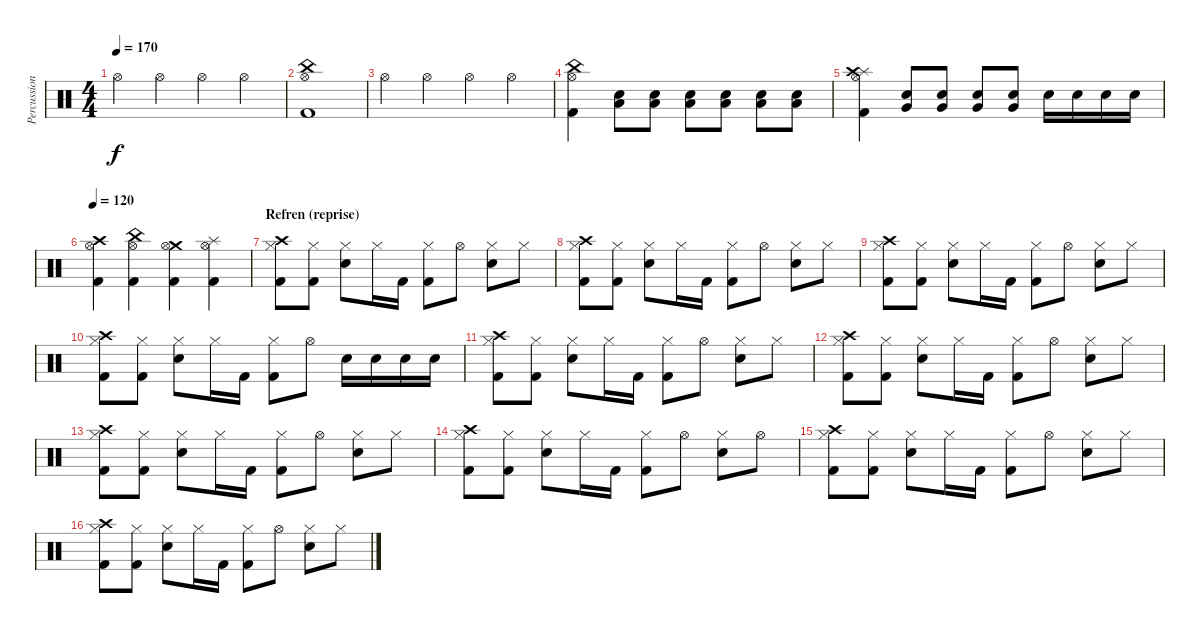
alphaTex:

\track ("Percussion - Who the fuck knows" "Percussion") {instrument percussion}
\staff {score}
\articulation defaults
\ts (4 4)
\tempo 170
\clef neutral
\ks c "Hi-Hat (open)".4{dy f} "Hi-Hat (open)".4 "Hi-Hat (open)".4 "Hi-Hat (open)".4
|
("China (hit)" "Hi-Hat (open)" "Kick (hit) 2").1 |
"Hi-Hat (open)".4 "Hi-Hat (open)".4 "Hi-Hat (open)".4 "Hi-Hat (open)".4 |
("China (hit)" "Hi-Hat (open)" "Kick (hit) 2").4 ("Low Floor Tom (hit)" "Snare (hit) 2").8 ("Low Floor Tom (hit)" "Snare (hit) 2").8 ("Low Floor Tom (hit)" "Snare (hit) 2").8 ("Low Floor Tom (hit)" "Snare (hit) 2").8 ("Low Floor Tom (hit)" "Snare (hit) 2").8 ("Low Floor Tom (hit)" "Snare (hit) 2").8 |
("Hi-Hat (open)" "Splash (hit)" "Kick (hit) 2" "Crash high (hit)").4 ("Very Low Tom (hit)" "Snare (hit) 2").8 ("Very Low Tom (hit)" "Snare (hit) 2").8 ("Very Low Tom (hit)" "Snare (hit) 2").8 ("Very Low Tom (hit)" "Snare (hit) 2").8 "Snare (hit) 2".16 "Snare (hit) 2".16 "Snare (hit) 2".16 "Snare (hit) 2".16 |
\tempo 120
("Crash high (hit)" "Kick (hit) 2" "Hi-Hat (open)").4 ("China (hit)" "Kick (hit) 2" "Hi-Hat (open)").4 ("Crash medium (hit)" "Kick (hit) 2" "Hi-Hat (open)").4 ("Splash (hit)" "Kick (hit) 2" "Hi-Hat (open)").4 |
\section ("" "Refren (reprise)")
("Hi-Hat (closed)" "Kick (hit) 2" "Crash high (hit)").8 ("Hi-Hat (closed)" "Kick (hit) 2").8 ("Hi-Hat (closed)" "Snare (hit) 2").8 "Hi-Hat (closed)".16 "Kick (hit) 2".16 ("Hi-Hat (closed)" "Kick (hit) 2").8 "Hi-Hat (open)".8 ("Hi-Hat (closed)" "Snare (hit) 2").8 "Hi-Hat (closed)".8 |
("Hi-Hat (closed)" "Kick (hit) 2" "Crash high (hit)").8 ("Hi-Hat (closed)" "Kick (hit) 2").8 ("Hi-Hat (closed)" "Snare (hit) 2").8 "Hi-Hat (closed)".16 "Kick (hit) 2".16 ("Hi-Hat (closed)" "Kick (hit) 2").8 "Hi-Hat (open)".8 ("Hi-Hat (closed)" "Snare (hit) 2").8 "Hi-Hat (closed)".8 |
("Hi-Hat (closed)" "Kick (hit) 2" "Crash high (hit)").8 ("Hi-Hat (closed)" "Kick (hit) 2").8 ("Hi-Hat (closed)" "Snare (hit) 2").8 "Hi-Hat (closed)".16 "Kick (hit) 2".16 ("Hi-Hat (closed)" "Kick (hit) 2").8 "Hi-Hat (open)".8 ("Hi-Hat (closed)" "Snare (hit) 2").8 "Hi-Hat (closed)".8 |
("Hi-Hat (closed)" "Kick (hit) 2" "Crash high (hit)").8 ("Hi-Hat (closed)" "Kick (hit) 2").8 ("Hi-Hat (closed)" "Snare (hit) 2").8 "Hi-Hat (closed)".16 "Kick (hit) 2".16 ("Hi-Hat (closed)" "Kick (hit) 2").8 "Hi-Hat (open)".8 "Snare (hit) 2".16 "Snare (hit) 2".16 "Snare (hit) 2".16 "Snare (hit) 2".16 |
("Hi-Hat (closed)" "Kick (hit) 2" "Crash high (hit)").8 ("Hi-Hat (closed)" "Kick (hit) 2").8 ("Hi-Hat (closed)" "Snare (hit) 2").8 "Hi-Hat (closed)".16 "Kick (hit) 2".16 ("Hi-Hat (closed)" "Kick (hit) 2").8 "Hi-Hat (open)".8 ("Hi-Hat (closed)" "Snare (hit) 2").8 "Hi-Hat (closed)".8 |
("Hi-Hat (closed)" "Kick (hit) 2" "Crash high (hit)").8 ("Hi-Hat (closed)" "Kick (hit) 2").8 ("Hi-Hat (closed)" "Snare (hit) 2").8 "Hi-Hat (closed)".16 "Kick (hit) 2".16 ("Hi-Hat (closed)" "Kick (hit) 2").8 "Hi-Hat (open)".8 ("Hi-Hat (closed)" "Snare (hit) 2").8 "Hi-Hat (closed)".8 |
("Hi-Hat (closed)" "Kick (hit) 2" "Crash high (hit)").8 ("Hi-Hat (closed)" "Kick (hit) 2").8 ("Hi-Hat (closed)" "Snare (hit) 2").8 "Hi-Hat (closed)".16 "Kick (hit) 2".16 ("Hi-Hat (closed)" "Kick (hit) 2").8 "Hi-Hat (open)".8 ("Hi-Hat (closed)" "Snare (hit) 2").8 "Hi-Hat (closed)".8 |
("Hi-Hat (closed)" "Kick (hit) 2" "Crash high (hit)").8 ("Hi-Hat (closed)" "Kick (hit) 2").8 ("Hi-Hat (closed)" "Snare (hit) 2").8 "Hi-Hat (closed)".16 "Kick (hit) 2".16 ("Hi-Hat (closed)" "Kick (hit) 2").8 "Hi-Hat (open)".8 ("Hi-Hat (closed)" "Snare (hit) 2").8 "Hi-Hat (open)".8 |
("Hi-Hat (closed)" "Kick (hit) 2" "Crash high (hit)").8 ("Hi-Hat (closed)" "Kick (hit) 2").8 ("Hi-Hat (closed)" "Snare (hit) 2").8 "Hi-Hat (closed)".16 "Kick (hit) 2".16 ("Hi-Hat (closed)" "Kick (hit) 2").8 "Hi-Hat (open)".8 ("Hi-Hat (closed)" "Snare (hit) 2").8 "Hi-Hat (closed)".8 |
("Hi-Hat (closed)" "Kick (hit) 2" "Crash high (hit)").8 ("Hi-Hat (closed)" "Kick (hit) 2").8 ("Hi-Hat (closed)" "Snare (hit) 2").8 "Hi-Hat (closed)".16 "Kick (hit) 2".16 ("Hi-Hat (closed)" "Kick (hit) 2").8 "Hi-Hat (open)".8 ("Hi-Hat (closed)" "Snare (hit) 2").8 "Hi-Hat (closed)".8
